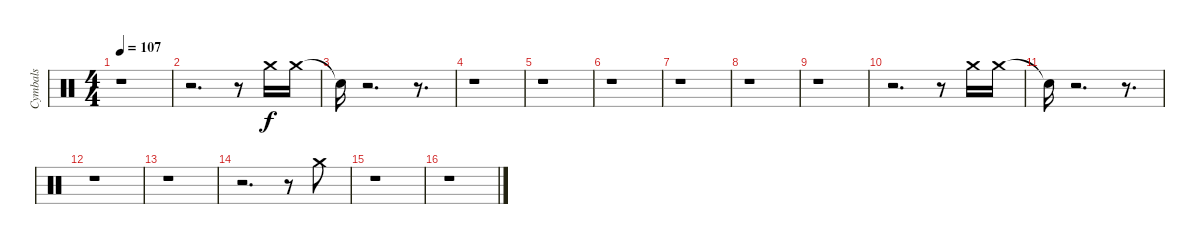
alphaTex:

\track ("Cymbals" "Cymbals") {instrument percussion}
\staff {score}
\articulation defaults
\ts (4 4)
\tempo 107
\clef neutral
\ks c
r.1{dy f} |
r.2{d} r.8 "Crash medium (hit)".16 "Crash medium (hit)".16 |
"Snare (hit)"{t}.16 r.2{d} r.8{d} |
r.1 |
r.1 |
r.1 |
r.1 |
r.1 |
r.1 |
r.2{d} r.8 "Crash medium (hit)".16 "Crash medium (hit)".16 |
"Snare (hit)"{t}.16 r.2{d} r.8{d} |
r.1 |
r.1 |
r.2{d} r.8 "Crash medium (hit)".8 |
r.1 |
r.1
